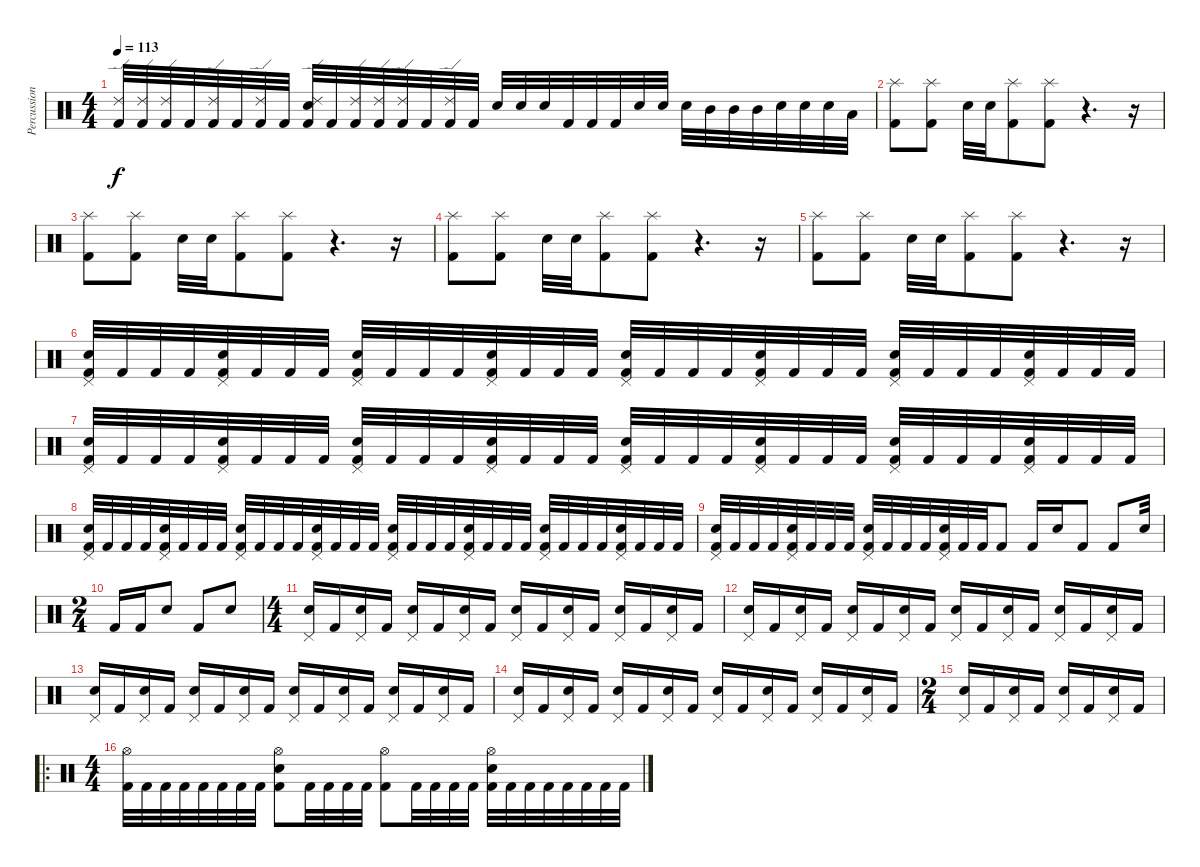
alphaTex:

\track ("Percussion" "Percussion") {instrument percussion}
\staff {score}
\articulation defaults
\ts (4 4)
\tempo 113
\clef neutral
\ks c
("Ride (edge) 2" "Kick (hit) 2").32{dy f} ("Ride (edge) 2" "Kick (hit) 2").32 ("Ride (edge) 2" "Kick (hit) 2").32 "Kick (hit) 2".32 ("Ride (edge) 2" "Kick (hit) 2").32 "Kick (hit) 2".32 ("Ride (edge) 2" "Kick (hit) 2").32 "Kick (hit) 2".32 ("Ride (edge) 2" "Electric Snare (hit)" "Kick (hit) 2").32 "Kick (hit) 2".32 ("Ride (edge) 2" "Kick (hit) 2").32 ("Ride (edge) 2" "Kick (hit) 2").32 ("Ride (edge) 2" "Kick (hit) 2").32 "Kick (hit) 2".32 ("Ride (edge) 2" "Kick (hit) 2").32 "Kick (hit) 2".32 "Electric Snare (hit)".32 "Electric Snare (hit)".32 "Electric Snare (hit)".32 "Kick (hit) 2".32 "Kick (hit) 2".32 "Kick (hit) 2".32 "Electric Snare (hit)".32 "Electric Snare (hit)".32 "Electric Snare (hit)".32 "Mid Tom (hit)".32 "Mid Tom (hit)".32 "Mid Tom (hit)".32 "Electric Snare (hit)".32 "Electric Snare (hit)".32 "Electric Snare (hit)".32 "Low Tom (hit)".32 |
("Splash (hit)" "Kick (hit) 2").8 ("Splash (hit)" "Kick (hit) 2").8 "Snare (hit)"{x}.32 "Snare (hit)"{x}.32 ("Splash (hit)" "Kick (hit) 2").8 ("Splash (hit)" "Kick (hit) 2").8 r.4{d} r.16 |
("Splash (hit)" "Kick (hit) 2").8 ("Splash (hit)" "Kick (hit) 2").8 "Snare (hit)"{x}.32 "Snare (hit)"{x}.32 ("Splash (hit)" "Kick (hit) 2").8 ("Splash (hit)" "Kick (hit) 2").8 r.4{d} r.16 |
("Splash (hit)" "Kick (hit) 2").8 ("Splash (hit)" "Kick (hit) 2").8 "Snare (hit)"{x}.32 "Snare (hit)"{x}.32 ("Splash (hit)" "Kick (hit) 2").8 ("Splash (hit)" "Kick (hit) 2").8 r.4{d} r.16 |
("Splash (hit)" "Kick (hit) 2").8 ("Splash (hit)" "Kick (hit) 2").8 "Snare (hit)"{x}.32 "Snare (hit)"{x}.32 ("Splash (hit)" "Kick (hit) 2").8 ("Splash (hit)" "Kick (hit) 2").8 r.4{d} r.16 |
("Pedal Hi-Hat (hit)" "Electric Snare (hit)" "Kick (hit) 2").32 "Kick (hit) 2".32 "Kick (hit) 2".32 "Kick (hit) 2".32 ("Pedal Hi-Hat (hit)" "Electric Snare (hit)" "Kick (hit) 2").32 "Kick (hit) 2".32 "Kick (hit) 2".32 "Kick (hit) 2".32 ("Pedal Hi-Hat (hit)" "Electric Snare (hit)" "Kick (hit) 2").32 "Kick (hit) 2".32 "Kick (hit) 2".32 "Kick (hit) 2".32 ("Pedal Hi-Hat (hit)" "Electric Snare (hit)" "Kick (hit) 2").32 "Kick (hit) 2".32 "Kick (hit) 2".32 "Kick (hit) 2".32 ("Pedal Hi-Hat (hit)" "Electric Snare (hit)" "Kick (hit) 2").32 "Kick (hit) 2".32 "Kick (hit) 2".32 "Kick (hit) 2".32 ("Pedal Hi-Hat (hit)" "Electric Snare (hit)" "Kick (hit) 2").32 "Kick (hit) 2".32 "Kick (hit) 2".32 "Kick (hit) 2".32 ("Pedal Hi-Hat (hit)" "Electric Snare (hit)" "Kick (hit) 2").32 "Kick (hit) 2".32 "Kick (hit) 2".32 "Kick (hit) 2".32 ("Pedal Hi-Hat (hit)" "Electric Snare (hit)" "Kick (hit) 2").32 "Kick (hit) 2".32 "Kick (hit) 2".32 "Kick (hit) 2".32 |
("Pedal Hi-Hat (hit)" "Electric Snare (hit)" "Kick (hit) 2").32 "Kick (hit) 2".32 "Kick (hit) 2".32 "Kick (hit) 2".32 ("Pedal Hi-Hat (hit)" "Electric Snare (hit)" "Kick (hit) 2").32 "Kick (hit) 2".32 "Kick (hit) 2".32 "Kick (hit) 2".32 ("Pedal Hi-Hat (hit)" "Electric Snare (hit)" "Kick (hit) 2").32 "Kick (hit) 2".32 "Kick (hit) 2".32 "Kick (hit) 2".32 ("Pedal Hi-Hat (hit)" "Electric Snare (hit)" "Kick (hit) 2").32 "Kick (hit) 2".32 "Kick (hit) 2".32 "Kick (hit) 2".32 ("Pedal Hi-Hat (hit)" "Electric Snare (hit)" "Kick (hit) 2").32 "Kick (hit) 2".32 "Kick (hit) 2".32 "Kick (hit) 2".32 ("Pedal Hi-Hat (hit)" "Electric Snare (hit)" "Kick (hit) 2").32 "Kick (hit) 2".32 "Kick (hit) 2".32 "Kick (hit) 2".32 ("Pedal Hi-Hat (hit)" "Electric Snare (hit)" "Kick (hit) 2").32 "Kick (hit) 2".32 "Kick (hit) 2".32 "Kick (hit) 2".32 ("Pedal Hi-Hat (hit)" "Electric Snare (hit)" "Kick (hit) 2").32 "Kick (hit) 2".32 "Kick (hit) 2".32 "Kick (hit) 2".32 |
("Pedal Hi-Hat (hit)" "Electric Snare (hit)" "Kick (hit) 2").32 "Kick (hit) 2".32 "Kick (hit) 2".32 "Kick (hit) 2".32 ("Pedal Hi-Hat (hit)" "Electric Snare (hit)" "Kick (hit) 2").32 "Kick (hit) 2".32 "Kick (hit) 2".32 "Kick (hit) 2".32 ("Pedal Hi-Hat (hit)" "Electric Snare (hit)" "Kick (hit) 2").32 "Kick (hit) 2".32 "Kick (hit) 2".32 "Kick (hit) 2".32 ("Pedal Hi-Hat (hit)" "Electric Snare (hit)" "Kick (hit) 2").32 "Kick (hit) 2".32 "Kick (hit) 2".32 "Kick (hit) 2".32 ("Pedal Hi-Hat (hit)" "Electric Snare (hit)" "Kick (hit) 2").32 "Kick (hit) 2".32 "Kick (hit) 2".32 "Kick (hit) 2".32 ("Pedal Hi-Hat (hit)" "Electric Snare (hit)" "Kick (hit) 2").32 "Kick (hit) 2".32 "Kick (hit) 2".32 "Kick (hit) 2".32 ("Pedal Hi-Hat (hit)" "Electric Snare (hit)" "Kick (hit) 2").32 "Kick (hit) 2".32 "Kick (hit) 2".32 "Kick (hit) 2".32 ("Pedal Hi-Hat (hit)" "Electric Snare (hit)" "Kick (hit) 2").32 "Kick (hit) 2".32 "Kick (hit) 2".32 "Kick (hit) 2".32 |
("Pedal Hi-Hat (hit)" "Electric Snare (hit)" "Kick (hit) 2").32 "Kick (hit) 2".32 "Kick (hit) 2".32 "Kick (hit) 2".32 ("Pedal Hi-Hat (hit)" "Electric Snare (hit)" "Kick (hit) 2").32 "Kick (hit) 2".32 "Kick (hit) 2".32 "Kick (hit) 2".32 ("Pedal Hi-Hat (hit)" "Electric Snare (hit)" "Kick (hit) 2").32 "Kick (hit) 2".32 "Kick (hit) 2".32 "Kick (hit) 2".32 ("Pedal Hi-Hat (hit)" "Electric Snare (hit)" "Kick (hit) 2").32 "Kick (hit) 2".32 "Kick (hit) 2".32 "Kick (hit) 2".8 "Kick (hit) 2".16 "Electric Snare (hit)".16 "Kick (hit) 2".8 "Kick (hit) 2".8 "Electric Snare (hit)".32 |
\ts (2 4)
"Kick (hit) 2".16 "Kick (hit) 2".16 "Electric Snare (hit)".8 "Kick (hit) 2".8 "Electric Snare (hit)".8 |
\ts (4 4)
("Pedal Hi-Hat (hit)" "Electric Snare (hit)").16 "Kick (hit) 2".16 ("Pedal Hi-Hat (hit)" "Electric Snare (hit)").16 "Kick (hit) 2".16 ("Pedal Hi-Hat (hit)" "Electric Snare (hit)").16 "Kick (hit) 2".16 ("Pedal Hi-Hat (hit)" "Electric Snare (hit)").16 "Kick (hit) 2".16 ("Pedal Hi-Hat (hit)" "Electric Snare (hit)").16 "Kick (hit) 2".16 ("Pedal Hi-Hat (hit)" "Electric Snare (hit)").16 "Kick (hit) 2".16 ("Pedal Hi-Hat (hit)" "Electric Snare (hit)").16 "Kick (hit) 2".16 ("Pedal Hi-Hat (hit)" "Electric Snare (hit)").16 "Kick (hit) 2".16 |
("Pedal Hi-Hat (hit)" "Electric Snare (hit)").16 "Kick (hit) 2".16 ("Pedal Hi-Hat (hit)" "Electric Snare (hit)").16 "Kick (hit) 2".16 ("Pedal Hi-Hat (hit)" "Electric Snare (hit)").16 "Kick (hit) 2".16 ("Pedal Hi-Hat (hit)" "Electric Snare (hit)").16 "Kick (hit) 2".16 ("Pedal Hi-Hat (hit)" "Electric Snare (hit)").16 "Kick (hit) 2".16 ("Pedal Hi-Hat (hit)" "Electric Snare (hit)").16 "Kick (hit) 2".16 ("Pedal Hi-Hat (hit)" "Electric Snare (hit)").16 "Kick (hit) 2".16 ("Pedal Hi-Hat (hit)" "Electric Snare (hit)").16 "Kick (hit) 2".16 |
("Pedal Hi-Hat (hit)" "Electric Snare (hit)").16 "Kick (hit) 2".16 ("Pedal Hi-Hat (hit)" "Electric Snare (hit)").16 "Kick (hit) 2".16 ("Pedal Hi-Hat (hit)" "Electric Snare (hit)").16 "Kick (hit) 2".16 ("Pedal Hi-Hat (hit)" "Electric Snare (hit)").16 "Kick (hit) 2".16 ("Pedal Hi-Hat (hit)" "Electric Snare (hit)").16 "Kick (hit) 2".16 ("Pedal Hi-Hat (hit)" "Electric Snare (hit)").16 "Kick (hit) 2".16 ("Pedal Hi-Hat (hit)" "Electric Snare (hit)").16 "Kick (hit) 2".16 ("Pedal Hi-Hat (hit)" "Electric Snare (hit)").16 "Kick (hit) 2".16 |
("Pedal Hi-Hat (hit)" "Electric Snare (hit)").16 "Kick (hit) 2".16 ("Pedal Hi-Hat (hit)" "Electric Snare (hit)").16 "Kick (hit) 2".16 ("Pedal Hi-Hat (hit)" "Electric Snare (hit)").16 "Kick (hit) 2".16 ("Pedal Hi-Hat (hit)" "Electric Snare (hit)").16 "Kick (hit) 2".16 ("Pedal Hi-Hat (hit)" "Electric Snare (hit)").16 "Kick (hit) 2".16 ("Pedal Hi-Hat (hit)" "Electric Snare (hit)").16 "Kick (hit) 2".16 ("Pedal Hi-Hat (hit)" "Electric Snare (hit)").16 "Kick (hit) 2".16 ("Pedal Hi-Hat (hit)" "Electric Snare (hit)").16 "Kick (hit) 2".16 |
\ts (2 4)
("Pedal Hi-Hat (hit)" "Electric Snare (hit)").16 "Kick (hit) 2".16 ("Pedal Hi-Hat (hit)" "Electric Snare (hit)").16 "Kick (hit) 2".16 ("Pedal Hi-Hat (hit)" "Electric Snare (hit)").16 "Kick (hit) 2".16 ("Pedal Hi-Hat (hit)" "Electric Snare (hit)").16 "Kick (hit) 2".16 |
\ro
\ts (4 4)
("Hi-Hat (open)" "Kick (hit) 2").32 "Kick (hit) 2".32 "Kick (hit) 2".32 "Kick (hit) 2".32 "Kick (hit) 2".32 "Kick (hit) 2".32 "Kick (hit) 2".32 "Kick (hit) 2".32 ("Hi-Hat (open)" "Electric Snare (hit)" "Kick (hit) 2").8 "Kick (hit) 2".32 "Kick (hit) 2".32 "Kick (hit) 2".32 "Kick (hit) 2".32 ("Hi-Hat (open)" "Kick (hit) 2").8 "Kick (hit) 2".32 "Kick (hit) 2".32 "Kick (hit) 2".32 "Kick (hit) 2".32 ("Hi-Hat (open)" "Electric Snare (hit)" "Kick (hit) 2").32 "Kick (hit) 2".32 "Kick (hit) 2".32 "Kick (hit) 2".32 "Kick (hit) 2".32 "Kick (hit) 2".32 "Kick (hit) 2".32 "Kick (hit) 2".32
